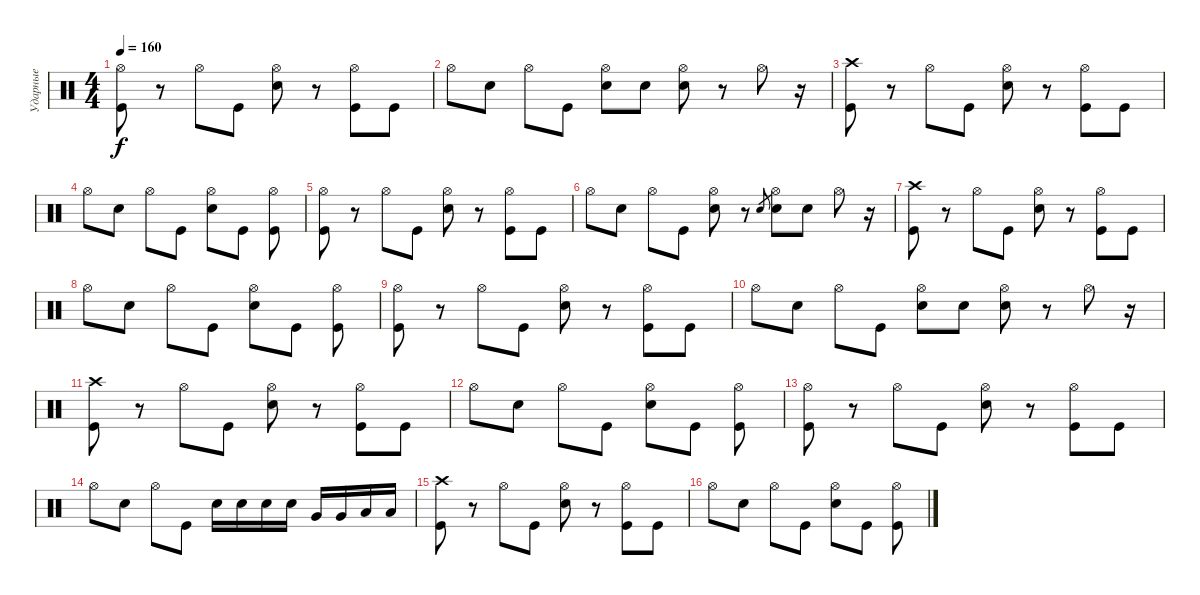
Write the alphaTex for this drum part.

\track ("Ударные" "Ударные") {instrument percussion}
\staff {score}
\articulation defaults
\ts (4 4)
\tempo 160
\clef neutral
\ks c
("Hi-Hat (open)" "Kick (hit)").8{dy f} r.8 "Hi-Hat (open)".8 "Kick (hit)".8 ("Hi-Hat (open)" "Electric Snare (hit)").8 r.8 ("Hi-Hat (open)" "Kick (hit)").8 "Kick (hit)".8 |
"Hi-Hat (open)".8 "Electric Snare (hit)".8 "Hi-Hat (open)".8 "Kick (hit)".8 ("Hi-Hat (open)" "Electric Snare (hit)").8 "Electric Snare (hit)".8 ("Hi-Hat (open)" "Electric Snare (hit)").8 r.8 "Hi-Hat (open)".8 r.16 |
("Crash high (hit)" "Kick (hit)").8 r.8 "Hi-Hat (open)".8 "Kick (hit)".8 ("Hi-Hat (open)" "Electric Snare (hit)").8 r.8 ("Hi-Hat (open)" "Kick (hit)").8 "Kick (hit)".8 |
"Hi-Hat (open)".8 "Electric Snare (hit)".8 "Hi-Hat (open)".8 "Kick (hit)".8 ("Hi-Hat (open)" "Electric Snare (hit)").8 "Kick (hit)".8 ("Hi-Hat (open)" "Kick (hit)").8 |
("Hi-Hat (open)" "Kick (hit)").8 r.8 "Hi-Hat (open)".8 "Kick (hit)".8 ("Hi-Hat (open)" "Electric Snare (hit)").8 r.8 ("Hi-Hat (open)" "Kick (hit)").8 "Kick (hit)".8 |
"Hi-Hat (open)".8 "Electric Snare (hit)".8 "Hi-Hat (open)".8 "Kick (hit)".8 ("Hi-Hat (open)" "Electric Snare (hit)").8 r.8 "Electric Snare (hit)".8{gr} ("Hi-Hat (open)" "Electric Snare (hit)").8 "Electric Snare (hit)".8 "Hi-Hat (open)".8 r.16 |
("Crash high (hit)" "Kick (hit)").8 r.8 "Hi-Hat (open)".8 "Kick (hit)".8 ("Hi-Hat (open)" "Electric Snare (hit)").8 r.8 ("Hi-Hat (open)" "Kick (hit)").8 "Kick (hit)".8 |
"Hi-Hat (open)".8 "Electric Snare (hit)".8 "Hi-Hat (open)".8 "Kick (hit)".8 ("Hi-Hat (open)" "Electric Snare (hit)").8 "Kick (hit)".8 ("Hi-Hat (open)" "Kick (hit)").8 |
("Hi-Hat (open)" "Kick (hit)").8 r.8 "Hi-Hat (open)".8 "Kick (hit)".8 ("Hi-Hat (open)" "Electric Snare (hit)").8 r.8 ("Hi-Hat (open)" "Kick (hit)").8 "Kick (hit)".8 |
"Hi-Hat (open)".8 "Electric Snare (hit)".8 "Hi-Hat (open)".8 "Kick (hit)".8 ("Hi-Hat (open)" "Electric Snare (hit)").8 "Electric Snare (hit)".8 ("Hi-Hat (open)" "Electric Snare (hit)").8 r.8 "Hi-Hat (open)".8 r.16 |
("Crash high (hit)" "Kick (hit)").8 r.8 "Hi-Hat (open)".8 "Kick (hit)".8 ("Hi-Hat (open)" "Electric Snare (hit)").8 r.8 ("Hi-Hat (open)" "Kick (hit)").8 "Kick (hit)".8 |
"Hi-Hat (open)".8 "Electric Snare (hit)".8 "Hi-Hat (open)".8 "Kick (hit)".8 ("Hi-Hat (open)" "Electric Snare (hit)").8 "Kick (hit)".8 ("Hi-Hat (open)" "Kick (hit)").8 |
("Hi-Hat (open)" "Kick (hit)").8 r.8 "Hi-Hat (open)".8 "Kick (hit)".8 ("Hi-Hat (open)" "Electric Snare (hit)").8 r.8 ("Hi-Hat (open)" "Kick (hit)").8 "Kick (hit)".8 |
"Hi-Hat (open)".8 "Electric Snare (hit)".8 "Hi-Hat (open)".8 "Kick (hit)".8 "Electric Snare (hit)".16 "Electric Snare (hit)".16 "Electric Snare (hit)".16 "Electric Snare (hit)".16 "Very Low Tom (hit)".16 "Very Low Tom (hit)".16 "Low Floor Tom (hit)".16 "Low Floor Tom (hit)".16 |
("Crash high (hit)" "Kick (hit)").8 r.8 "Hi-Hat (open)".8 "Kick (hit)".8 ("Hi-Hat (open)" "Electric Snare (hit)").8 r.8 ("Hi-Hat (open)" "Kick (hit)").8 "Kick (hit)".8 |
"Hi-Hat (open)".8 "Electric Snare (hit)".8 "Hi-Hat (open)".8 "Kick (hit)".8 ("Hi-Hat (open)" "Electric Snare (hit)").8 "Kick (hit)".8 ("Hi-Hat (open)" "Kick (hit)").8
